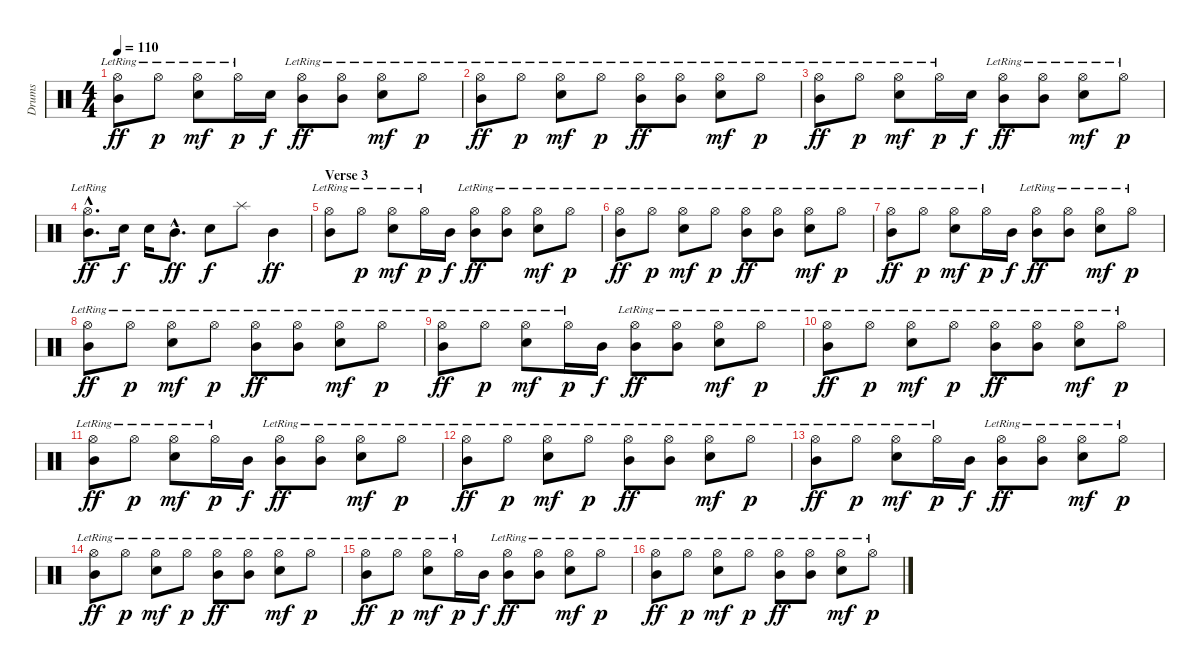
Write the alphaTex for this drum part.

\track ("Drums" "Drums") {instrument percussion}
\staff {score}
\articulation defaults
\ts (4 4)
\tempo 110
\clef neutral
\ks c
("Hi-Hat (open)"{lr} "Mid Tom (hit)").8{dy ff} "Hi-Hat (open)"{lr}.8{dy p} ("Hi-Hat (open)"{lr} "Electric Snare (hit)").8{dy mf} "Hi-Hat (open)"{lr}.16{dy p} "Electric Snare (hit)".16{dy f} ("Hi-Hat (open)"{lr} "Mid Tom (hit)").8{dy ff} ("Hi-Hat (open)"{lr} "Mid Tom (hit)").8 ("Hi-Hat (open)"{lr} "Electric Snare (hit)").8{dy mf} "Hi-Hat (open)"{lr}.8{dy p} |
("Hi-Hat (open)"{lr} "Mid Tom (hit)").8{dy ff} "Hi-Hat (open)"{lr}.8{dy p} ("Hi-Hat (open)"{lr} "Electric Snare (hit)").8{dy mf} "Hi-Hat (open)"{lr}.8{dy p} ("Hi-Hat (open)"{lr} "Mid Tom (hit)").8{dy ff} ("Hi-Hat (open)"{lr} "Mid Tom (hit)").8 ("Hi-Hat (open)"{lr} "Electric Snare (hit)").8{dy mf} "Hi-Hat (open)"{lr}.8{dy p} |
("Hi-Hat (open)"{lr} "Mid Tom (hit)").8{dy ff} "Hi-Hat (open)"{lr}.8{dy p} ("Hi-Hat (open)"{lr} "Electric Snare (hit)").8{dy mf} "Hi-Hat (open)"{lr}.16{dy p} "Electric Snare (hit)".16{dy f} ("Hi-Hat (open)"{lr} "Mid Tom (hit)").8{dy ff} ("Hi-Hat (open)"{lr} "Mid Tom (hit)").8 ("Hi-Hat (open)"{lr} "Electric Snare (hit)").8{dy mf} "Hi-Hat (open)"{lr}.8{dy p} |
("Hi-Hat (open)"{hac lr} "Mid Tom (hit)"{hac}).8{d dy ff} "Electric Snare (hit)".16{dy f} "Electric Snare (hit)".16 "Mid Tom (hit)"{hac}.8{d dy ff} "Electric Snare (hit)".8{dy f} "Splash (hit)".8 "Mid Tom (hit)".4{dy ff} |
\section ("" "Verse 3")
("Hi-Hat (open)"{lr} "Mid Tom (hit)").8 "Hi-Hat (open)"{lr}.8{dy p} ("Hi-Hat (open)"{lr} "Electric Snare (hit)").8{dy mf} "Hi-Hat (open)"{lr}.16{dy p} "Mid Tom (hit)".16{dy f} ("Hi-Hat (open)"{lr} "Mid Tom (hit)").8{dy ff} ("Hi-Hat (open)"{lr} "Mid Tom (hit)").8 ("Hi-Hat (open)"{lr} "Electric Snare (hit)").8{dy mf} "Hi-Hat (open)"{lr}.8{dy p} |
("Hi-Hat (open)"{lr} "Mid Tom (hit)").8{dy ff} "Hi-Hat (open)"{lr}.8{dy p} ("Hi-Hat (open)"{lr} "Electric Snare (hit)").8{dy mf} "Hi-Hat (open)"{lr}.8{dy p} ("Hi-Hat (open)"{lr} "Mid Tom (hit)").8{dy ff} ("Hi-Hat (open)"{lr} "Mid Tom (hit)").8 ("Hi-Hat (open)"{lr} "Electric Snare (hit)").8{dy mf} "Hi-Hat (open)"{lr}.8{dy p} |
("Hi-Hat (open)"{lr} "Mid Tom (hit)").8{dy ff} "Hi-Hat (open)"{lr}.8{dy p} ("Hi-Hat (open)"{lr} "Electric Snare (hit)").8{dy mf} "Hi-Hat (open)"{lr}.16{dy p} "Mid Tom (hit)".16{dy f} ("Hi-Hat (open)"{lr} "Mid Tom (hit)").8{dy ff} ("Hi-Hat (open)"{lr} "Mid Tom (hit)").8 ("Hi-Hat (open)"{lr} "Electric Snare (hit)").8{dy mf} "Hi-Hat (open)"{lr}.8{dy p} |
("Hi-Hat (open)"{lr} "Mid Tom (hit)").8{dy ff} "Hi-Hat (open)"{lr}.8{dy p} ("Hi-Hat (open)"{lr} "Electric Snare (hit)").8{dy mf} "Hi-Hat (open)"{lr}.8{dy p} ("Hi-Hat (open)"{lr} "Mid Tom (hit)").8{dy ff} ("Hi-Hat (open)"{lr} "Mid Tom (hit)").8 ("Hi-Hat (open)"{lr} "Electric Snare (hit)").8{dy mf} "Hi-Hat (open)"{lr}.8{dy p} |
("Hi-Hat (open)"{lr} "Mid Tom (hit)").8{dy ff} "Hi-Hat (open)"{lr}.8{dy p} ("Hi-Hat (open)"{lr} "Electric Snare (hit)").8{dy mf} "Hi-Hat (open)"{lr}.16{dy p} "Mid Tom (hit)".16{dy f} ("Hi-Hat (open)"{lr} "Mid Tom (hit)").8{dy ff} ("Hi-Hat (open)"{lr} "Mid Tom (hit)").8 ("Hi-Hat (open)"{lr} "Electric Snare (hit)").8{dy mf} "Hi-Hat (open)"{lr}.8{dy p} |
("Hi-Hat (open)"{lr} "Mid Tom (hit)").8{dy ff} "Hi-Hat (open)"{lr}.8{dy p} ("Hi-Hat (open)"{lr} "Electric Snare (hit)").8{dy mf} "Hi-Hat (open)"{lr}.8{dy p} ("Hi-Hat (open)"{lr} "Mid Tom (hit)").8{dy ff} ("Hi-Hat (open)"{lr} "Mid Tom (hit)").8 ("Hi-Hat (open)"{lr} "Electric Snare (hit)").8{dy mf} "Hi-Hat (open)"{lr}.8{dy p} |
("Hi-Hat (open)"{lr} "Mid Tom (hit)").8{dy ff} "Hi-Hat (open)"{lr}.8{dy p} ("Hi-Hat (open)"{lr} "Electric Snare (hit)").8{dy mf} "Hi-Hat (open)"{lr}.16{dy p} "Mid Tom (hit)".16{dy f} ("Hi-Hat (open)"{lr} "Mid Tom (hit)").8{dy ff} ("Hi-Hat (open)"{lr} "Mid Tom (hit)").8 ("Hi-Hat (open)"{lr} "Electric Snare (hit)").8{dy mf} "Hi-Hat (open)"{lr}.8{dy p} |
("Hi-Hat (open)"{lr} "Mid Tom (hit)").8{dy ff} "Hi-Hat (open)"{lr}.8{dy p} ("Hi-Hat (open)"{lr} "Electric Snare (hit)").8{dy mf} "Hi-Hat (open)"{lr}.8{dy p} ("Hi-Hat (open)"{lr} "Mid Tom (hit)").8{dy ff} ("Hi-Hat (open)"{lr} "Mid Tom (hit)").8 ("Hi-Hat (open)"{lr} "Electric Snare (hit)").8{dy mf} "Hi-Hat (open)"{lr}.8{dy p} |
("Hi-Hat (open)"{lr} "Mid Tom (hit)").8{dy ff} "Hi-Hat (open)"{lr}.8{dy p} ("Hi-Hat (open)"{lr} "Electric Snare (hit)").8{dy mf} "Hi-Hat (open)"{lr}.16{dy p} "Mid Tom (hit)".16{dy f} ("Hi-Hat (open)"{lr} "Mid Tom (hit)").8{dy ff} ("Hi-Hat (open)"{lr} "Mid Tom (hit)").8 ("Hi-Hat (open)"{lr} "Electric Snare (hit)").8{dy mf} "Hi-Hat (open)"{lr}.8{dy p} |
("Hi-Hat (open)"{lr} "Mid Tom (hit)").8{dy ff} "Hi-Hat (open)"{lr}.8{dy p} ("Hi-Hat (open)"{lr} "Electric Snare (hit)").8{dy mf} "Hi-Hat (open)"{lr}.8{dy p} ("Hi-Hat (open)"{lr} "Mid Tom (hit)").8{dy ff} ("Hi-Hat (open)"{lr} "Mid Tom (hit)").8 ("Hi-Hat (open)"{lr} "Electric Snare (hit)").8{dy mf} "Hi-Hat (open)"{lr}.8{dy p} |
("Hi-Hat (open)"{lr} "Mid Tom (hit)").8{dy ff} "Hi-Hat (open)"{lr}.8{dy p} ("Hi-Hat (open)"{lr} "Electric Snare (hit)").8{dy mf} "Hi-Hat (open)"{lr}.16{dy p} "Mid Tom (hit)".16{dy f} ("Hi-Hat (open)"{lr} "Mid Tom (hit)").8{dy ff} ("Hi-Hat (open)"{lr} "Mid Tom (hit)").8 ("Hi-Hat (open)"{lr} "Electric Snare (hit)").8{dy mf} "Hi-Hat (open)"{lr}.8{dy p} |
("Hi-Hat (open)"{lr} "Mid Tom (hit)").8{dy ff} "Hi-Hat (open)"{lr}.8{dy p} ("Hi-Hat (open)"{lr} "Electric Snare (hit)").8{dy mf} "Hi-Hat (open)"{lr}.8{dy p} ("Hi-Hat (open)"{lr} "Mid Tom (hit)").8{dy ff} ("Hi-Hat (open)"{lr} "Mid Tom (hit)").8 ("Hi-Hat (open)"{lr} "Electric Snare (hit)").8{dy mf} "Hi-Hat (open)"{lr}.8{dy p}
